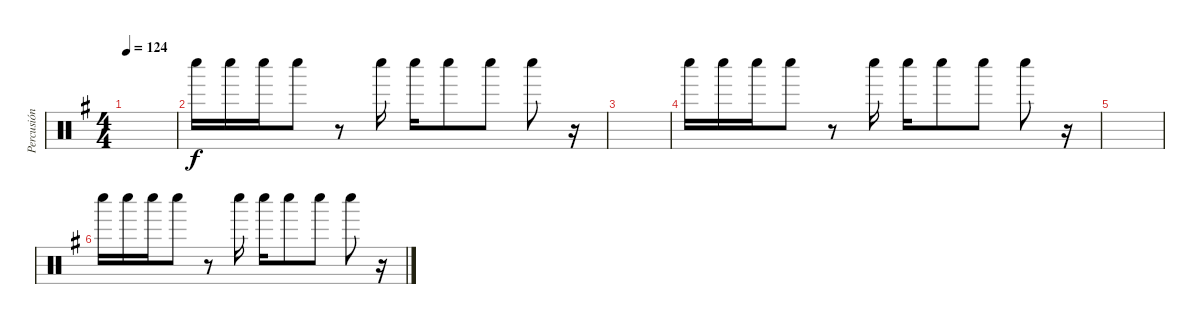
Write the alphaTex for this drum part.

\track ("Percusión" "Percusión") {instrument percussion}
\staff {score}
\articulation defaults
\ts (4 4)
\tempo 124
\clef neutral
\ks g
|
"Whistle low (hit)".16{volume 8} "Whistle low (hit)".16 "Whistle low (hit)".16 "Whistle low (hit)".8 r.8 "Whistle low (hit)".16 "Whistle low (hit)".16 "Whistle low (hit)".8 "Whistle low (hit)".8 "Whistle low (hit)".8 r.16 |
|
"Whistle low (hit)".16{volume 4} "Whistle low (hit)".16 "Whistle low (hit)".16 "Whistle low (hit)".8 r.8 "Whistle low (hit)".16 "Whistle low (hit)".16 "Whistle low (hit)".8 "Whistle low (hit)".8 "Whistle low (hit)".8 r.16 |
|
"Whistle low (hit)".16{volume 1} "Whistle low (hit)".16 "Whistle low (hit)".16 "Whistle low (hit)".8 r.8 "Whistle low (hit)".16 "Whistle low (hit)".16 "Whistle low (hit)".8 "Whistle low (hit)".8 "Whistle low (hit)".8 r.16
